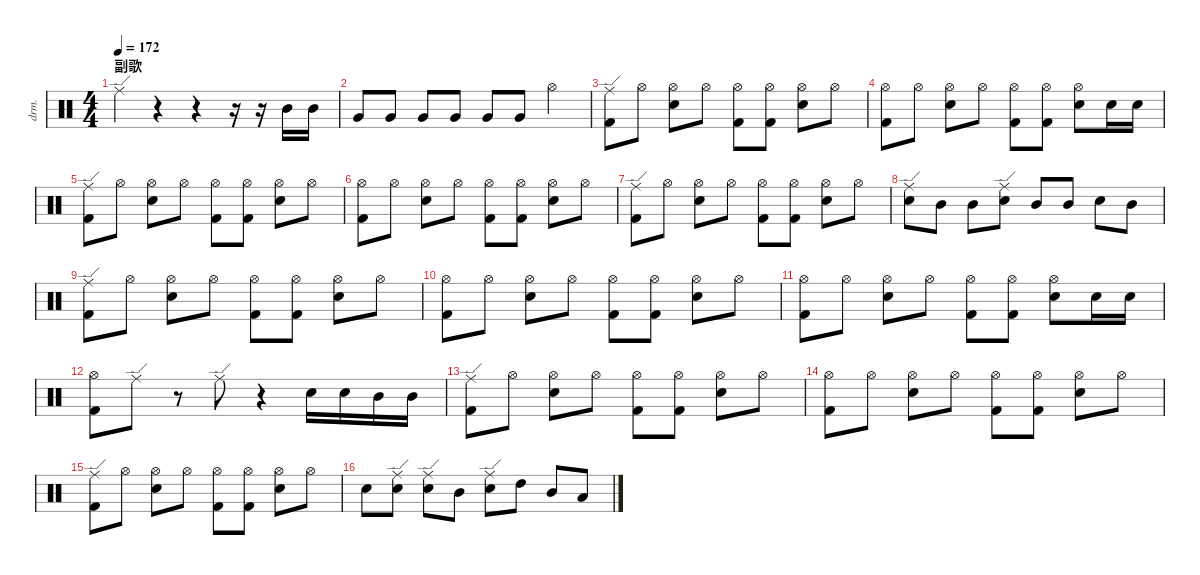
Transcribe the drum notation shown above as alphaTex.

\defaultSystemsLayout 4
\hideDynamics
\bracketExtendMode nobrackets
\track ("Drums" "drm.") {solo instrument percussion}
\staff {score}
\articulation defaults
\ts (4 4)
\section ("" "副歌")
\tempo 172
\clef neutral
\ks c "Ride (edge)".4{dy ff beam Down}
r.4{beam Down} r.4{beam Down} r.16{beam Down} r.16{beam Down} "Mid Tom (hit)".16{beam Up} "Mid Tom (hit)".16{beam Up} |
"Very Low Tom (hit)".8{beam Up} "Very Low Tom (hit)".8{beam Up} "Very Low Tom (hit)".8{beam Up} "Very Low Tom (hit)".8{beam Up} "Very Low Tom (hit)".8{beam Up} "Very Low Tom (hit)".8{beam Up} "Hi-Hat (open)".4{beam Down} |
("Kick (hit) 2" "Ride (edge)").8{beam Down} "Hi-Hat (open)".8{dy mf beam Down} ("Snare (hit) 2" "Hi-Hat (open)").8{beam Down} "Hi-Hat (open)".8{beam Down} ("Kick (hit) 2" "Hi-Hat (open)").8{beam Down} ("Kick (hit) 2" "Hi-Hat (open)").8{beam Down} ("Snare (hit) 2" "Hi-Hat (open)").8{beam Down} "Hi-Hat (open)".8{beam Down} |
("Kick (hit) 2" "Hi-Hat (open)").8{beam Down} "Hi-Hat (open)".8{beam Down} ("Snare (hit) 2" "Hi-Hat (open)").8{beam Down} "Hi-Hat (open)".8{beam Down} ("Kick (hit) 2" "Hi-Hat (open)").8{beam Down} ("Kick (hit) 2" "Hi-Hat (open)").8{beam Down} ("Snare (hit) 2" "Hi-Hat (open)").8{beam Down} "Snare (hit) 2".16{beam Down} "Snare (hit) 2".16{beam Down} |
("Kick (hit) 2" "Ride (edge)").8{dy ff beam Down} "Hi-Hat (open)".8{dy mf beam Down} ("Snare (hit) 2" "Hi-Hat (open)").8{beam Down} "Hi-Hat (open)".8{beam Down} ("Kick (hit) 2" "Hi-Hat (open)").8{beam Down} ("Kick (hit) 2" "Hi-Hat (open)").8{beam Down} ("Snare (hit) 2" "Hi-Hat (open)").8{beam Down} "Hi-Hat (open)".8{beam Down} |
("Kick (hit) 2" "Hi-Hat (open)").8{beam Down} "Hi-Hat (open)".8{beam Down} ("Snare (hit) 2" "Hi-Hat (open)").8{beam Down} "Hi-Hat (open)".8{beam Down} ("Kick (hit) 2" "Hi-Hat (open)").8{beam Down} ("Kick (hit) 2" "Hi-Hat (open)").8{beam Down} ("Snare (hit) 2" "Hi-Hat (open)").8{beam Down} "Hi-Hat (open)".8{beam Down} |
("Kick (hit) 2" "Ride (edge)").8{dy ff beam Down} "Hi-Hat (open)".8{dy mf beam Down} ("Snare (hit) 2" "Hi-Hat (open)").8{beam Down} "Hi-Hat (open)".8{beam Down} ("Kick (hit) 2" "Hi-Hat (open)").8{beam Down} ("Kick (hit) 2" "Hi-Hat (open)").8{beam Down} ("Snare (hit) 2" "Hi-Hat (open)").8{beam Down} "Hi-Hat (open)".8{beam Down} |
("Snare (hit) 2" "Ride (edge)").8{dy ff beam Down} "Mid Tom (hit)".8{dy mf beam Down} "Mid Tom (hit)".8{beam Down} ("Snare (hit) 2" "Ride (edge)").8{dy ff beam Down} "Mid Tom (hit)".8{dy mf beam Up} "Mid Tom (hit)".8{beam Up} "Snare (hit) 2".8{beam Down} "Mid Tom (hit)".8{beam Down} |
("Kick (hit) 2" "Ride (edge)").8{dy ff beam Down} "Hi-Hat (open)".8{dy mf beam Down} ("Snare (hit) 2" "Hi-Hat (open)").8{beam Down} "Hi-Hat (open)".8{beam Down} ("Kick (hit) 2" "Hi-Hat (open)").8{beam Down} ("Kick (hit) 2" "Hi-Hat (open)").8{beam Down} ("Snare (hit) 2" "Hi-Hat (open)").8{beam Down} "Hi-Hat (open)".8{beam Down} |
("Kick (hit) 2" "Hi-Hat (open)").8{beam Down} "Hi-Hat (open)".8{beam Down} ("Snare (hit) 2" "Hi-Hat (open)").8{beam Down} "Hi-Hat (open)".8{beam Down} ("Kick (hit) 2" "Hi-Hat (open)").8{beam Down} ("Kick (hit) 2" "Hi-Hat (open)").8{beam Down} ("Snare (hit) 2" "Hi-Hat (open)").8{beam Down} "Hi-Hat (open)".8{beam Down} |
("Kick (hit) 2" "Hi-Hat (open)").8{beam Down} "Hi-Hat (open)".8{beam Down} ("Snare (hit) 2" "Hi-Hat (open)").8{beam Down} "Hi-Hat (open)".8{beam Down} ("Kick (hit) 2" "Hi-Hat (open)").8{beam Down} ("Kick (hit) 2" "Hi-Hat (open)").8{beam Down} ("Snare (hit) 2" "Hi-Hat (open)").8{beam Down} "Snare (hit) 2".16{beam Down} "Snare (hit) 2".16{beam Down} |
("Hi-Hat (open)" "Kick (hit) 2").8{beam Down} "Ride (edge)".8{dy fff beam Down} r.8{beam Down} "Ride (edge)".8{beam Down} r.4{beam Down} "Snare (hit) 2".16{dy mf beam Down} "Snare (hit) 2".16{beam Down} "Mid Tom (hit)".16{dy fff beam Down} "Mid Tom (hit)".16{beam Down} |
("Kick (hit) 2" "Ride (edge)").8{dy ff beam Down} "Hi-Hat (open)".8{dy mf beam Down} ("Snare (hit) 2" "Hi-Hat (open)").8{beam Down} "Hi-Hat (open)".8{beam Down} ("Kick (hit) 2" "Hi-Hat (open)").8{beam Down} ("Kick (hit) 2" "Hi-Hat (open)").8{beam Down} ("Snare (hit) 2" "Hi-Hat (open)").8{beam Down} "Hi-Hat (open)".8{beam Down} |
("Kick (hit) 2" "Hi-Hat (open)").8{beam Down} "Hi-Hat (open)".8{beam Down} ("Snare (hit) 2" "Hi-Hat (open)").8{beam Down} "Hi-Hat (open)".8{beam Down} ("Kick (hit) 2" "Hi-Hat (open)").8{beam Down} ("Kick (hit) 2" "Hi-Hat (open)").8{beam Down} ("Snare (hit) 2" "Hi-Hat (open)").8{beam Down} "Hi-Hat (open)".8{beam Down} |
("Kick (hit) 2" "Ride (edge)").8{dy ff beam Down} "Hi-Hat (open)".8{dy mf beam Down} ("Snare (hit) 2" "Hi-Hat (open)").8{beam Down} "Hi-Hat (open)".8{beam Down} ("Kick (hit) 2" "Hi-Hat (open)").8{beam Down} ("Kick (hit) 2" "Hi-Hat (open)").8{beam Down} ("Snare (hit) 2" "Hi-Hat (open)").8{beam Down} "Hi-Hat (open)".8{beam Down} |
"Snare (hit) 2".8{beam Down} ("Snare (hit) 2" "Ride (edge)").8{dy ff beam Down} ("Snare (hit) 2" "Ride (edge)").8{beam Down} "Mid Tom (hit)".8{beam Down} ("Snare (hit) 2" "Ride (edge)").8{beam Down} "High Tom (hit)".8{dy fff beam Down} "Mid Tom (hit)".8{beam Up} "Low Tom (hit)".8{beam Up}
